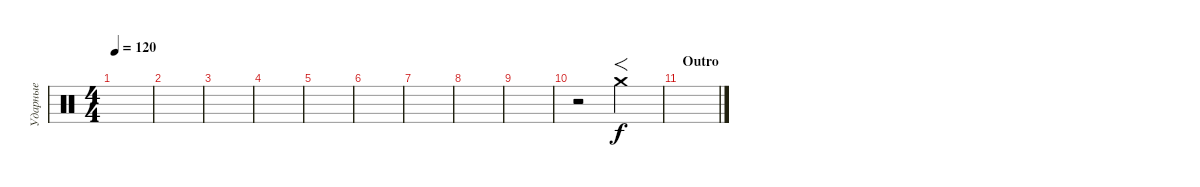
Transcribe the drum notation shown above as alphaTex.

\track ("Ударные" "Ударные") {instrument percussion}
\staff {score}
\articulation defaults
\ts (4 4)
\tempo 120
\clef neutral
\ks c
|
|
|
|
|
|
|
|
|
r.2 "Crash medium (hit)".2{f} |
\section ("" "Outro")
